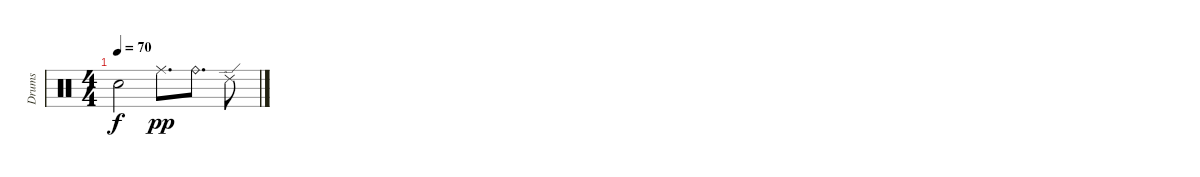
\track ("Drums" "Drums") {instrument percussion}
\staff {score}
\articulation defaults
\ts (4 4)
\tempo 70
\clef neutral
\ks c "Snare (hit)"{t}.2{dy f} "Ride (middle)".8{d dy pp} "Ride (bell)".8{d} "Ride (edge) 2".8
